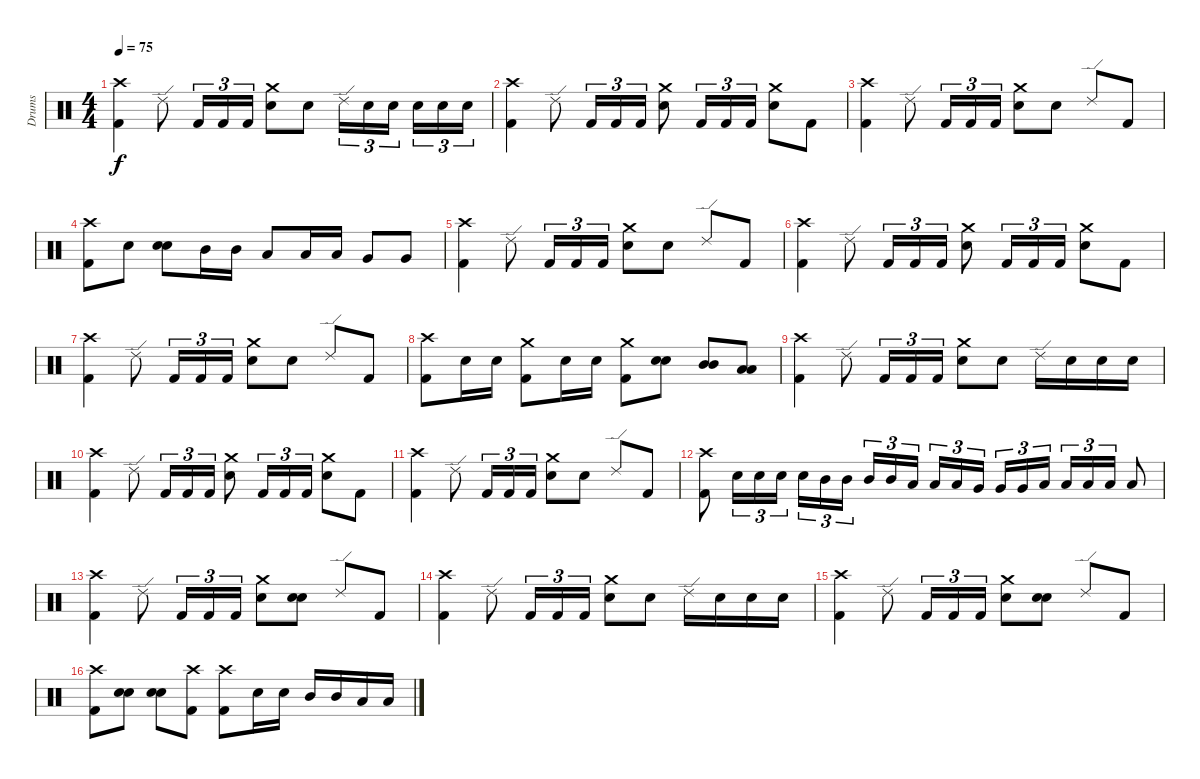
\track ("Drums" "Drums") {instrument percussion}
\staff {score}
\articulation defaults
\ts (4 4)
\tempo 75
\clef neutral
\ks c
("Crash high (hit)" "Kick (hit) 2").4{dy f} "Ride (edge) 2".8 "Kick (hit) 2".16{tu (3 2)} "Kick (hit) 2".16{tu (3 2)} "Kick (hit) 2".16{tu (3 2)} ("Crash medium (hit)" "Electric Snare (hit)").8 "Electric Snare (hit)".8 "Ride (edge) 2".16{tu (3 2)} "Electric Snare (hit)".16{tu (3 2)} "Electric Snare (hit)".16{tu (3 2)} "Electric Snare (hit)".16{tu (3 2)} "Electric Snare (hit)".16{tu (3 2)} "Electric Snare (hit)".16{tu (3 2)} |
("Crash high (hit)" "Kick (hit) 2").4 "Ride (edge) 2".8 "Kick (hit) 2".16{tu (3 2)} "Kick (hit) 2".16{tu (3 2)} "Kick (hit) 2".16{tu (3 2)} ("Crash medium (hit)" "Electric Snare (hit)").8 "Kick (hit) 2".16{tu (3 2)} "Kick (hit) 2".16{tu (3 2)} "Kick (hit) 2".16{tu (3 2)} ("Crash medium (hit)" "Electric Snare (hit)").8 "Kick (hit) 2".8 |
("Crash high (hit)" "Kick (hit) 2").4 "Ride (edge) 2".8 "Kick (hit) 2".16{tu (3 2)} "Kick (hit) 2".16{tu (3 2)} "Kick (hit) 2".16{tu (3 2)} ("Crash medium (hit)" "Electric Snare (hit)").8 "Electric Snare (hit)".8 "Ride (edge) 2".8 "Kick (hit) 2".8 |
("Crash high (hit)" "Kick (hit) 2").8 "Electric Snare (hit)".8 ("Electric Snare (hit)" "Electric Snare (hit)").8{bu 60} "Mid Tom (hit)".16 "Mid Tom (hit)".16 "Low Tom (hit)".8 "Low Tom (hit)".16 "Low Tom (hit)".16 "Very Low Tom (hit)".8 "Very Low Tom (hit)".8 |
("Crash high (hit)" "Kick (hit) 2").4 "Ride (edge) 2".8 "Kick (hit) 2".16{tu (3 2)} "Kick (hit) 2".16{tu (3 2)} "Kick (hit) 2".16{tu (3 2)} ("Crash medium (hit)" "Electric Snare (hit)").8 "Electric Snare (hit)".8 "Ride (edge) 2".8 "Kick (hit) 2".8 |
("Crash high (hit)" "Kick (hit) 2").4 "Ride (edge) 2".8 "Kick (hit) 2".16{tu (3 2)} "Kick (hit) 2".16{tu (3 2)} "Kick (hit) 2".16{tu (3 2)} ("Crash medium (hit)" "Electric Snare (hit)").8 "Kick (hit) 2".16{tu (3 2)} "Kick (hit) 2".16{tu (3 2)} "Kick (hit) 2".16{tu (3 2)} ("Crash medium (hit)" "Electric Snare (hit)").8 "Kick (hit) 2".8 |
("Crash high (hit)" "Kick (hit) 2").4 "Ride (edge) 2".8 "Kick (hit) 2".16{tu (3 2)} "Kick (hit) 2".16{tu (3 2)} "Kick (hit) 2".16{tu (3 2)} ("Crash medium (hit)" "Electric Snare (hit)").8 "Electric Snare (hit)".8 "Ride (edge) 2".8 "Kick (hit) 2".8 |
("Crash high (hit)" "Kick (hit) 2").8 "Electric Snare (hit)".16 "Electric Snare (hit)".16 ("Crash medium (hit)" "Kick (hit) 2").8 "Electric Snare (hit)".16 "Electric Snare (hit)".16 ("Crash medium (hit)" "Kick (hit) 2").8 ("Electric Snare (hit)" "Electric Snare (hit)").8{bu 60} ("Mid Tom (hit)" "Mid Tom (hit)").8{bu 60} ("Low Tom (hit)" "Low Tom (hit)").8{bu 60} |
("Crash high (hit)" "Kick (hit) 2").4 "Ride (edge) 2".8 "Kick (hit) 2".16{tu (3 2)} "Kick (hit) 2".16{tu (3 2)} "Kick (hit) 2".16{tu (3 2)} ("Crash medium (hit)" "Electric Snare (hit)").8 "Electric Snare (hit)".8 "Ride (edge) 2".16 "Electric Snare (hit)".16 "Electric Snare (hit)".16 "Electric Snare (hit)".16 |
("Crash high (hit)" "Kick (hit) 2").4 "Ride (edge) 2".8 "Kick (hit) 2".16{tu (3 2)} "Kick (hit) 2".16{tu (3 2)} "Kick (hit) 2".16{tu (3 2)} ("Crash medium (hit)" "Electric Snare (hit)").8 "Kick (hit) 2".16{tu (3 2)} "Kick (hit) 2".16{tu (3 2)} "Kick (hit) 2".16{tu (3 2)} ("Crash medium (hit)" "Electric Snare (hit)").8 "Kick (hit) 2".8 |
("Crash high (hit)" "Kick (hit) 2").4 "Ride (edge) 2".8 "Kick (hit) 2".16{tu (3 2)} "Kick (hit) 2".16{tu (3 2)} "Kick (hit) 2".16{tu (3 2)} ("Crash medium (hit)" "Electric Snare (hit)").8 "Electric Snare (hit)".8 "Ride (edge) 2".8 "Kick (hit) 2".8 |
("Crash high (hit)" "Kick (hit) 2").8 "Electric Snare (hit)".16{tu (3 2)} "Electric Snare (hit)".16{tu (3 2)} "Electric Snare (hit)".16{tu (3 2)} "Electric Snare (hit)".16{tu (3 2)} "Mid Tom (hit)".16{tu (3 2)} "Mid Tom (hit)".16{tu (3 2)} "Mid Tom (hit)".16{tu (3 2)} "Mid Tom (hit)".16{tu (3 2)} "Low Tom (hit)".16{tu (3 2)} "Low Tom (hit)".16{tu (3 2)} "Low Tom (hit)".16{tu (3 2)} "Very Low Tom (hit)".16{tu (3 2)} "Very Low Tom (hit)".16{tu (3 2)} "Very Low Tom (hit)".16{tu (3 2)} "Low Floor Tom (hit)".16{tu (3 2)} "Low Floor Tom (hit)".16{tu (3 2)} "Low Floor Tom (hit)".16{tu (3 2)} "Low Floor Tom (hit)".16{tu (3 2)} "Low Floor Tom (hit)".8 |
("Crash high (hit)" "Kick (hit) 2").4 "Ride (edge) 2".8 "Kick (hit) 2".16{tu (3 2)} "Kick (hit) 2".16{tu (3 2)} "Kick (hit) 2".16{tu (3 2)} ("Crash medium (hit)" "Electric Snare (hit)").8 ("Electric Snare (hit)" "Electric Snare (hit)").8{bu 60} "Ride (edge) 2".8 "Kick (hit) 2".8 |
("Crash high (hit)" "Kick (hit) 2").4 "Ride (edge) 2".8 "Kick (hit) 2".16{tu (3 2)} "Kick (hit) 2".16{tu (3 2)} "Kick (hit) 2".16{tu (3 2)} ("Crash medium (hit)" "Electric Snare (hit)").8 "Electric Snare (hit)".8 "Ride (edge) 2".16 "Electric Snare (hit)".16 "Electric Snare (hit)".16 "Electric Snare (hit)".16 |
("Crash high (hit)" "Kick (hit) 2").4 "Ride (edge) 2".8 "Kick (hit) 2".16{tu (3 2)} "Kick (hit) 2".16{tu (3 2)} "Kick (hit) 2".16{tu (3 2)} ("Crash medium (hit)" "Electric Snare (hit)").8 ("Electric Snare (hit)" "Electric Snare (hit)").8{bu 60} "Ride (edge) 2".8 "Kick (hit) 2".8 |
("Crash high (hit)" "Kick (hit) 2").8 ("Electric Snare (hit)" "Electric Snare (hit)").8{bu 60} ("Electric Snare (hit)" "Electric Snare (hit)").8{bu 60} ("Crash high (hit)" "Kick (hit) 2").8 ("Crash high (hit)" "Kick (hit) 2").8 "Electric Snare (hit)".16 "Electric Snare (hit)".16 "Mid Tom (hit)".16 "Mid Tom (hit)".16 "Low Tom (hit)".16 "Low Tom (hit)".16
